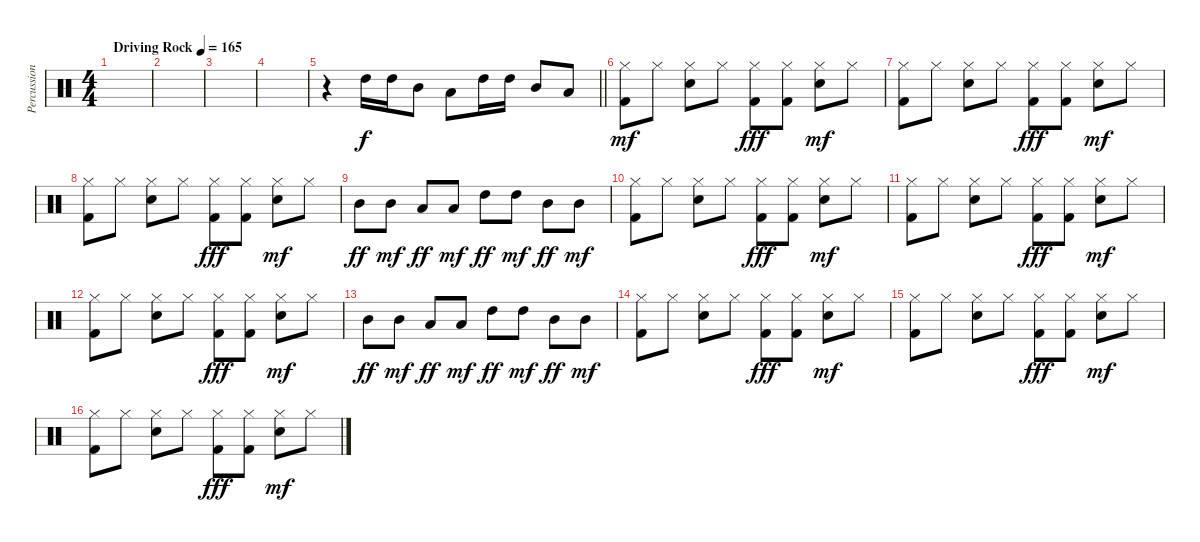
\track ("Percussion" "Percussion") {instrument percussion}
\staff {score}
\articulation defaults
\ts (4 4)
\tempo (165 "Driving Rock")
\clef neutral
\ks c
|
|
|
|
\barLineRight lightlight
r.4 "High Tom (hit)".16 "High Tom (hit)".16 "Mid Tom (hit)".8 "Low Tom (hit)".8 "High Tom (hit)".16 "High Tom (hit)".16 "Mid Tom (hit)".8 "Low Tom (hit)".8 |
("Kick (hit) 2" "Hi-Hat (closed)").8{dy mf} "Hi-Hat (closed)".8 ("Hi-Hat (closed)" "Electric Snare (hit)").8 "Hi-Hat (closed)".8 ("Hi-Hat (closed)" "Kick (hit) 2").8{dy fff} ("Hi-Hat (closed)" "Kick (hit) 2").8 ("Hi-Hat (closed)" "Electric Snare (hit)").8{dy mf} "Hi-Hat (closed)".8 |
("Kick (hit) 2" "Hi-Hat (closed)").8 "Hi-Hat (closed)".8 ("Hi-Hat (closed)" "Electric Snare (hit)").8 "Hi-Hat (closed)".8 ("Hi-Hat (closed)" "Kick (hit) 2").8{dy fff} ("Hi-Hat (closed)" "Kick (hit) 2").8 ("Hi-Hat (closed)" "Electric Snare (hit)").8{dy mf} "Hi-Hat (closed)".8 |
("Kick (hit) 2" "Hi-Hat (closed)").8 "Hi-Hat (closed)".8 ("Hi-Hat (closed)" "Electric Snare (hit)").8 "Hi-Hat (closed)".8 ("Hi-Hat (closed)" "Kick (hit) 2").8{dy fff} ("Hi-Hat (closed)" "Kick (hit) 2").8 ("Hi-Hat (closed)" "Electric Snare (hit)").8{dy mf} "Hi-Hat (closed)".8 |
"Mid Tom (hit)".8{dy ff} "Mid Tom (hit)".8{dy mf} "Low Tom (hit)".8{dy ff} "Low Tom (hit)".8{dy mf} "High Tom (hit)".8{dy ff} "High Tom (hit)".8{dy mf} "Mid Tom (hit)".8{dy ff} "Mid Tom (hit)".8{dy mf} |
("Kick (hit) 2" "Hi-Hat (closed)").8 "Hi-Hat (closed)".8 ("Hi-Hat (closed)" "Electric Snare (hit)").8 "Hi-Hat (closed)".8 ("Hi-Hat (closed)" "Kick (hit) 2").8{dy fff} ("Hi-Hat (closed)" "Kick (hit) 2").8 ("Hi-Hat (closed)" "Electric Snare (hit)").8{dy mf} "Hi-Hat (closed)".8 |
("Kick (hit) 2" "Hi-Hat (closed)").8 "Hi-Hat (closed)".8 ("Hi-Hat (closed)" "Electric Snare (hit)").8 "Hi-Hat (closed)".8 ("Hi-Hat (closed)" "Kick (hit) 2").8{dy fff} ("Hi-Hat (closed)" "Kick (hit) 2").8 ("Hi-Hat (closed)" "Electric Snare (hit)").8{dy mf} "Hi-Hat (closed)".8 |
("Kick (hit) 2" "Hi-Hat (closed)").8 "Hi-Hat (closed)".8 ("Hi-Hat (closed)" "Electric Snare (hit)").8 "Hi-Hat (closed)".8 ("Hi-Hat (closed)" "Kick (hit) 2").8{dy fff} ("Hi-Hat (closed)" "Kick (hit) 2").8 ("Hi-Hat (closed)" "Electric Snare (hit)").8{dy mf} "Hi-Hat (closed)".8 |
"Mid Tom (hit)".8{dy ff} "Mid Tom (hit)".8{dy mf} "Low Tom (hit)".8{dy ff} "Low Tom (hit)".8{dy mf} "High Tom (hit)".8{dy ff} "High Tom (hit)".8{dy mf} "Mid Tom (hit)".8{dy ff} "Mid Tom (hit)".8{dy mf} |
("Kick (hit) 2" "Hi-Hat (closed)").8 "Hi-Hat (closed)".8 ("Hi-Hat (closed)" "Electric Snare (hit)").8 "Hi-Hat (closed)".8 ("Hi-Hat (closed)" "Kick (hit) 2").8{dy fff} ("Hi-Hat (closed)" "Kick (hit) 2").8 ("Hi-Hat (closed)" "Electric Snare (hit)").8{dy mf} "Hi-Hat (closed)".8 |
("Kick (hit) 2" "Hi-Hat (closed)").8 "Hi-Hat (closed)".8 ("Hi-Hat (closed)" "Electric Snare (hit)").8 "Hi-Hat (closed)".8 ("Hi-Hat (closed)" "Kick (hit) 2").8{dy fff} ("Hi-Hat (closed)" "Kick (hit) 2").8 ("Hi-Hat (closed)" "Electric Snare (hit)").8{dy mf} "Hi-Hat (closed)".8 |
("Kick (hit) 2" "Hi-Hat (closed)").8 "Hi-Hat (closed)".8 ("Hi-Hat (closed)" "Electric Snare (hit)").8 "Hi-Hat (closed)".8 ("Hi-Hat (closed)" "Kick (hit) 2").8{dy fff} ("Hi-Hat (closed)" "Kick (hit) 2").8 ("Hi-Hat (closed)" "Electric Snare (hit)").8{dy mf} "Hi-Hat (closed)".8
